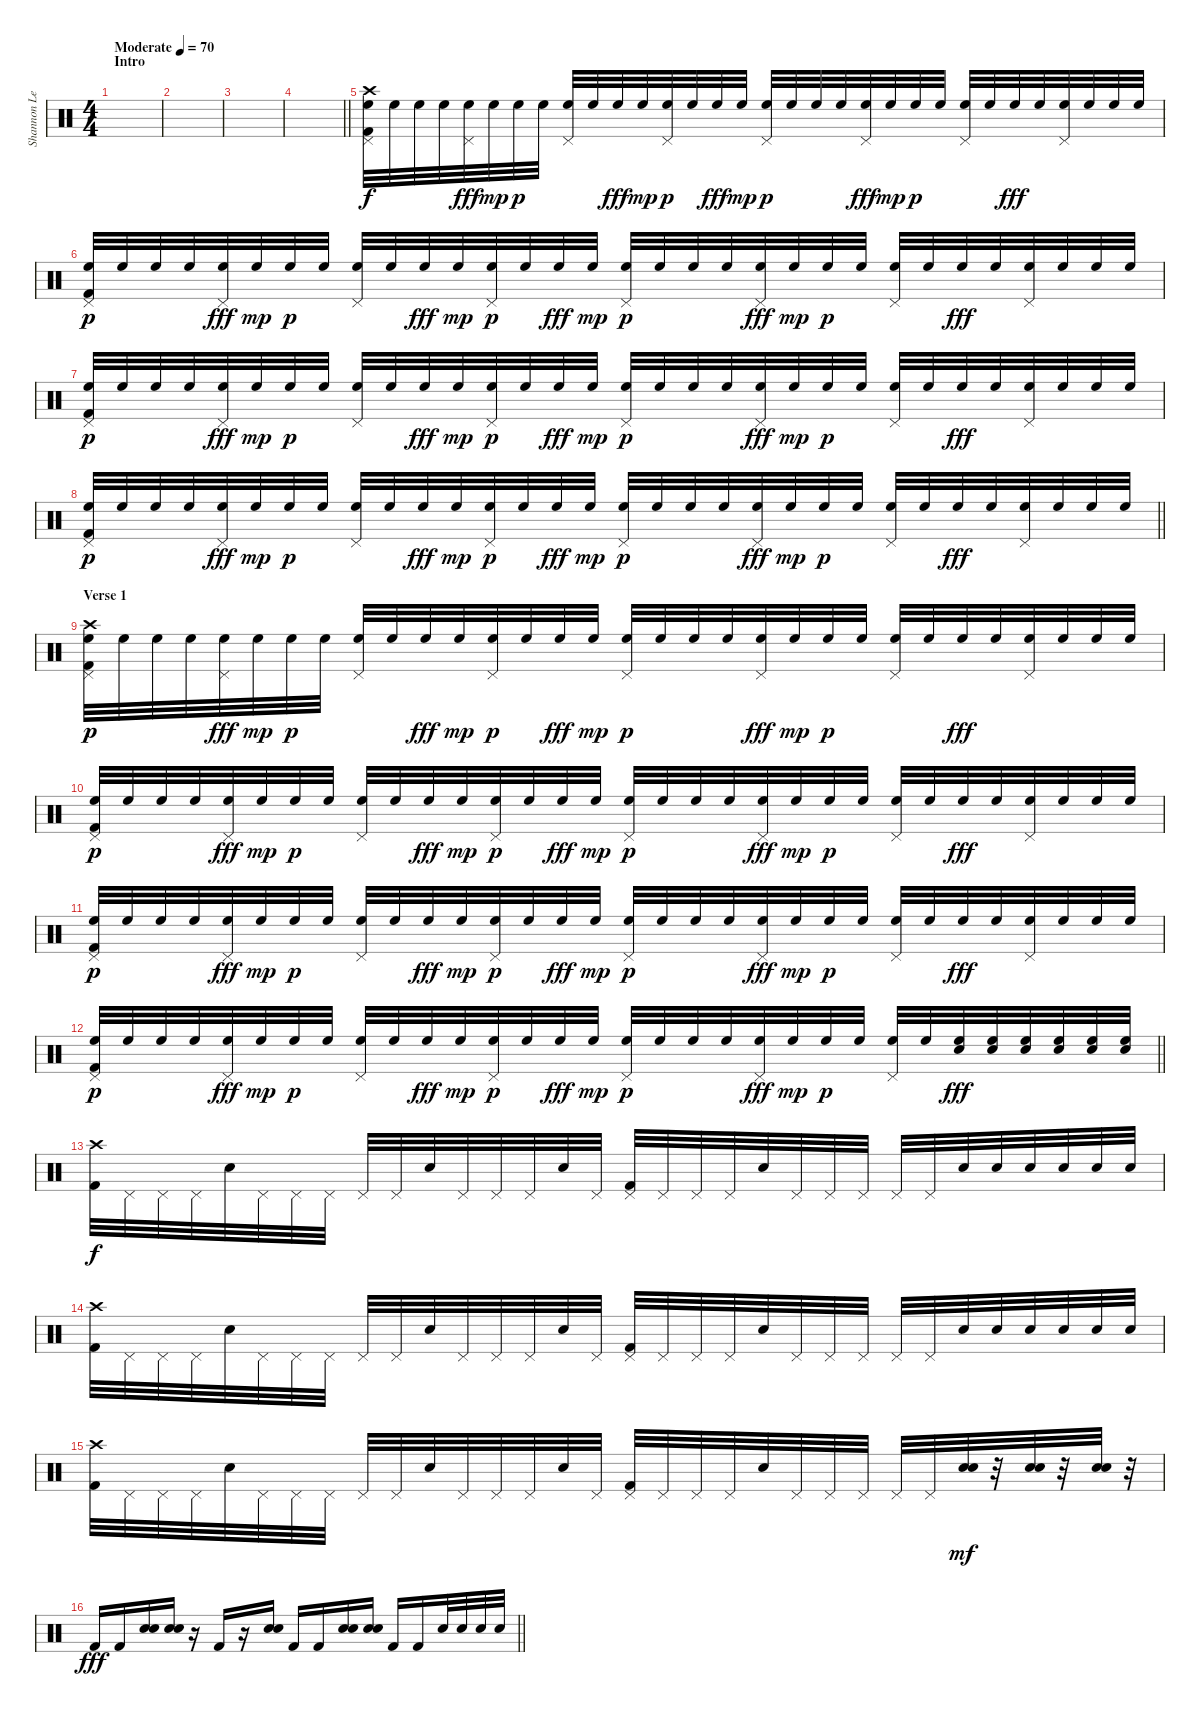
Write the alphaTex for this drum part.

\track ("Shannon Leto - Drums" "Shannon Le") {instrument percussion}
\staff {score}
\articulation defaults
\ts (4 4)
\section ("" "Intro")
\tempo (70 "Moderate")
\clef neutral
\ks c
|
|
|
\barLineRight lightlight
|
\section ("" "")
("Crash high (hit)" "Pedal Hi-Hat (hit)" "High Floor Tom (hit)" "Kick (hit) 2").32 "High Floor Tom (hit)".32 "High Floor Tom (hit)".32 "High Floor Tom (hit)".32 ("Pedal Hi-Hat (hit)" "High Floor Tom (hit)").32{dy fff} "High Floor Tom (hit)".32{dy mp} "High Floor Tom (hit)".32{dy p} "High Floor Tom (hit)".32 ("Pedal Hi-Hat (hit)" "High Floor Tom (hit)").32 "High Floor Tom (hit)".32 "High Floor Tom (hit)".32{dy fff} "High Floor Tom (hit)".32{dy mp} ("Pedal Hi-Hat (hit)" "High Floor Tom (hit)").32{dy p} "High Floor Tom (hit)".32 "High Floor Tom (hit)".32{dy fff} "High Floor Tom (hit)".32{dy mp} ("Pedal Hi-Hat (hit)" "High Floor Tom (hit)").32{dy p} "High Floor Tom (hit)".32 "High Floor Tom (hit)".32 "High Floor Tom (hit)".32 ("Pedal Hi-Hat (hit)" "High Floor Tom (hit)").32{dy fff} "High Floor Tom (hit)".32{dy mp} "High Floor Tom (hit)".32{dy p} "High Floor Tom (hit)".32 ("Pedal Hi-Hat (hit)" "High Floor Tom (hit)").32 "High Floor Tom (hit)".32 "High Floor Tom (hit)".32{dy fff} "High Floor Tom (hit)".32 ("Pedal Hi-Hat (hit)" "High Floor Tom (hit)").32 "High Floor Tom (hit)".32 "High Floor Tom (hit)".32 "High Floor Tom (hit)".32 |
("Pedal Hi-Hat (hit)" "High Floor Tom (hit)" "Kick (hit) 2").32{dy p} "High Floor Tom (hit)".32 "High Floor Tom (hit)".32 "High Floor Tom (hit)".32 ("Pedal Hi-Hat (hit)" "High Floor Tom (hit)").32{dy fff} "High Floor Tom (hit)".32{dy mp} "High Floor Tom (hit)".32{dy p} "High Floor Tom (hit)".32 ("Pedal Hi-Hat (hit)" "High Floor Tom (hit)").32 "High Floor Tom (hit)".32 "High Floor Tom (hit)".32{dy fff} "High Floor Tom (hit)".32{dy mp} ("Pedal Hi-Hat (hit)" "High Floor Tom (hit)").32{dy p} "High Floor Tom (hit)".32 "High Floor Tom (hit)".32{dy fff} "High Floor Tom (hit)".32{dy mp} ("Pedal Hi-Hat (hit)" "High Floor Tom (hit)").32{dy p} "High Floor Tom (hit)".32 "High Floor Tom (hit)".32 "High Floor Tom (hit)".32 ("Pedal Hi-Hat (hit)" "High Floor Tom (hit)").32{dy fff} "High Floor Tom (hit)".32{dy mp} "High Floor Tom (hit)".32{dy p} "High Floor Tom (hit)".32 ("Pedal Hi-Hat (hit)" "High Floor Tom (hit)").32 "High Floor Tom (hit)".32 "High Floor Tom (hit)".32{dy fff} "High Floor Tom (hit)".32 ("Pedal Hi-Hat (hit)" "High Floor Tom (hit)").32 "High Floor Tom (hit)".32 "High Floor Tom (hit)".32 "High Floor Tom (hit)".32 |
("Pedal Hi-Hat (hit)" "High Floor Tom (hit)" "Kick (hit) 2").32{dy p} "High Floor Tom (hit)".32 "High Floor Tom (hit)".32 "High Floor Tom (hit)".32 ("Pedal Hi-Hat (hit)" "High Floor Tom (hit)").32{dy fff} "High Floor Tom (hit)".32{dy mp} "High Floor Tom (hit)".32{dy p} "High Floor Tom (hit)".32 ("Pedal Hi-Hat (hit)" "High Floor Tom (hit)").32 "High Floor Tom (hit)".32 "High Floor Tom (hit)".32{dy fff} "High Floor Tom (hit)".32{dy mp} ("Pedal Hi-Hat (hit)" "High Floor Tom (hit)").32{dy p} "High Floor Tom (hit)".32 "High Floor Tom (hit)".32{dy fff} "High Floor Tom (hit)".32{dy mp} ("Pedal Hi-Hat (hit)" "High Floor Tom (hit)").32{dy p} "High Floor Tom (hit)".32 "High Floor Tom (hit)".32 "High Floor Tom (hit)".32 ("Pedal Hi-Hat (hit)" "High Floor Tom (hit)").32{dy fff} "High Floor Tom (hit)".32{dy mp} "High Floor Tom (hit)".32{dy p} "High Floor Tom (hit)".32 ("Pedal Hi-Hat (hit)" "High Floor Tom (hit)").32 "High Floor Tom (hit)".32 "High Floor Tom (hit)".32{dy fff} "High Floor Tom (hit)".32 ("Pedal Hi-Hat (hit)" "High Floor Tom (hit)").32 "High Floor Tom (hit)".32 "High Floor Tom (hit)".32 "High Floor Tom (hit)".32 |
\barLineRight lightlight
("Pedal Hi-Hat (hit)" "High Floor Tom (hit)" "Kick (hit) 2").32{dy p} "High Floor Tom (hit)".32 "High Floor Tom (hit)".32 "High Floor Tom (hit)".32 ("Pedal Hi-Hat (hit)" "High Floor Tom (hit)").32{dy fff} "High Floor Tom (hit)".32{dy mp} "High Floor Tom (hit)".32{dy p} "High Floor Tom (hit)".32 ("Pedal Hi-Hat (hit)" "High Floor Tom (hit)").32 "High Floor Tom (hit)".32 "High Floor Tom (hit)".32{dy fff} "High Floor Tom (hit)".32{dy mp} ("Pedal Hi-Hat (hit)" "High Floor Tom (hit)").32{dy p} "High Floor Tom (hit)".32 "High Floor Tom (hit)".32{dy fff} "High Floor Tom (hit)".32{dy mp} ("Pedal Hi-Hat (hit)" "High Floor Tom (hit)").32{dy p} "High Floor Tom (hit)".32 "High Floor Tom (hit)".32 "High Floor Tom (hit)".32 ("Pedal Hi-Hat (hit)" "High Floor Tom (hit)").32{dy fff} "High Floor Tom (hit)".32{dy mp} "High Floor Tom (hit)".32{dy p} "High Floor Tom (hit)".32 ("Pedal Hi-Hat (hit)" "High Floor Tom (hit)").32 "High Floor Tom (hit)".32 "High Floor Tom (hit)".32{dy fff} "High Floor Tom (hit)".32 ("Pedal Hi-Hat (hit)" "High Floor Tom (hit)").32 "High Floor Tom (hit)".32 "High Floor Tom (hit)".32 "High Floor Tom (hit)".32 |
\section ("" "Verse 1")
("Crash high (hit)" "Pedal Hi-Hat (hit)" "High Floor Tom (hit)" "Kick (hit) 2").32{dy p} "High Floor Tom (hit)".32 "High Floor Tom (hit)".32 "High Floor Tom (hit)".32 ("Pedal Hi-Hat (hit)" "High Floor Tom (hit)").32{dy fff} "High Floor Tom (hit)".32{dy mp} "High Floor Tom (hit)".32{dy p} "High Floor Tom (hit)".32 ("Pedal Hi-Hat (hit)" "High Floor Tom (hit)").32 "High Floor Tom (hit)".32 "High Floor Tom (hit)".32{dy fff} "High Floor Tom (hit)".32{dy mp} ("Pedal Hi-Hat (hit)" "High Floor Tom (hit)").32{dy p} "High Floor Tom (hit)".32 "High Floor Tom (hit)".32{dy fff} "High Floor Tom (hit)".32{dy mp} ("Pedal Hi-Hat (hit)" "High Floor Tom (hit)").32{dy p} "High Floor Tom (hit)".32 "High Floor Tom (hit)".32 "High Floor Tom (hit)".32 ("Pedal Hi-Hat (hit)" "High Floor Tom (hit)").32{dy fff} "High Floor Tom (hit)".32{dy mp} "High Floor Tom (hit)".32{dy p} "High Floor Tom (hit)".32 ("Pedal Hi-Hat (hit)" "High Floor Tom (hit)").32 "High Floor Tom (hit)".32 "High Floor Tom (hit)".32{dy fff} "High Floor Tom (hit)".32 ("Pedal Hi-Hat (hit)" "High Floor Tom (hit)").32 "High Floor Tom (hit)".32 "High Floor Tom (hit)".32 "High Floor Tom (hit)".32 |
("Pedal Hi-Hat (hit)" "High Floor Tom (hit)" "Kick (hit) 2").32{dy p} "High Floor Tom (hit)".32 "High Floor Tom (hit)".32 "High Floor Tom (hit)".32 ("Pedal Hi-Hat (hit)" "High Floor Tom (hit)").32{dy fff} "High Floor Tom (hit)".32{dy mp} "High Floor Tom (hit)".32{dy p} "High Floor Tom (hit)".32 ("Pedal Hi-Hat (hit)" "High Floor Tom (hit)").32 "High Floor Tom (hit)".32 "High Floor Tom (hit)".32{dy fff} "High Floor Tom (hit)".32{dy mp} ("Pedal Hi-Hat (hit)" "High Floor Tom (hit)").32{dy p} "High Floor Tom (hit)".32 "High Floor Tom (hit)".32{dy fff} "High Floor Tom (hit)".32{dy mp} ("Pedal Hi-Hat (hit)" "High Floor Tom (hit)").32{dy p} "High Floor Tom (hit)".32 "High Floor Tom (hit)".32 "High Floor Tom (hit)".32 ("Pedal Hi-Hat (hit)" "High Floor Tom (hit)").32{dy fff} "High Floor Tom (hit)".32{dy mp} "High Floor Tom (hit)".32{dy p} "High Floor Tom (hit)".32 ("Pedal Hi-Hat (hit)" "High Floor Tom (hit)").32 "High Floor Tom (hit)".32 "High Floor Tom (hit)".32{dy fff} "High Floor Tom (hit)".32 ("Pedal Hi-Hat (hit)" "High Floor Tom (hit)").32 "High Floor Tom (hit)".32 "High Floor Tom (hit)".32 "High Floor Tom (hit)".32 |
("Pedal Hi-Hat (hit)" "High Floor Tom (hit)" "Kick (hit) 2").32{dy p} "High Floor Tom (hit)".32 "High Floor Tom (hit)".32 "High Floor Tom (hit)".32 ("Pedal Hi-Hat (hit)" "High Floor Tom (hit)").32{dy fff} "High Floor Tom (hit)".32{dy mp} "High Floor Tom (hit)".32{dy p} "High Floor Tom (hit)".32 ("Pedal Hi-Hat (hit)" "High Floor Tom (hit)").32 "High Floor Tom (hit)".32 "High Floor Tom (hit)".32{dy fff} "High Floor Tom (hit)".32{dy mp} ("Pedal Hi-Hat (hit)" "High Floor Tom (hit)").32{dy p} "High Floor Tom (hit)".32 "High Floor Tom (hit)".32{dy fff} "High Floor Tom (hit)".32{dy mp} ("Pedal Hi-Hat (hit)" "High Floor Tom (hit)").32{dy p} "High Floor Tom (hit)".32 "High Floor Tom (hit)".32 "High Floor Tom (hit)".32 ("Pedal Hi-Hat (hit)" "High Floor Tom (hit)").32{dy fff} "High Floor Tom (hit)".32{dy mp} "High Floor Tom (hit)".32{dy p} "High Floor Tom (hit)".32 ("Pedal Hi-Hat (hit)" "High Floor Tom (hit)").32 "High Floor Tom (hit)".32 "High Floor Tom (hit)".32{dy fff} "High Floor Tom (hit)".32 ("Pedal Hi-Hat (hit)" "High Floor Tom (hit)").32 "High Floor Tom (hit)".32 "High Floor Tom (hit)".32 "High Floor Tom (hit)".32 |
\barLineRight lightlight
("Pedal Hi-Hat (hit)" "High Floor Tom (hit)" "Kick (hit) 2").32{dy p} "High Floor Tom (hit)".32 "High Floor Tom (hit)".32 "High Floor Tom (hit)".32 ("Pedal Hi-Hat (hit)" "High Floor Tom (hit)").32{dy fff} "High Floor Tom (hit)".32{dy mp} "High Floor Tom (hit)".32{dy p} "High Floor Tom (hit)".32 ("Pedal Hi-Hat (hit)" "High Floor Tom (hit)").32 "High Floor Tom (hit)".32 "High Floor Tom (hit)".32{dy fff} "High Floor Tom (hit)".32{dy mp} ("Pedal Hi-Hat (hit)" "High Floor Tom (hit)").32{dy p} "High Floor Tom (hit)".32 "High Floor Tom (hit)".32{dy fff} "High Floor Tom (hit)".32{dy mp} ("Pedal Hi-Hat (hit)" "High Floor Tom (hit)").32{dy p} "High Floor Tom (hit)".32 "High Floor Tom (hit)".32 "High Floor Tom (hit)".32 ("Pedal Hi-Hat (hit)" "High Floor Tom (hit)").32{dy fff} "High Floor Tom (hit)".32{dy mp} "High Floor Tom (hit)".32{dy p} "High Floor Tom (hit)".32 ("Pedal Hi-Hat (hit)" "High Floor Tom (hit)").32 "High Floor Tom (hit)".32 ("Electric Snare (hit)" "High Floor Tom (hit)").32{dy fff} ("Electric Snare (hit)" "High Floor Tom (hit)").32 ("Electric Snare (hit)" "High Floor Tom (hit)").32 ("Electric Snare (hit)" "High Floor Tom (hit)").32 ("Electric Snare (hit)" "High Floor Tom (hit)").32 ("Electric Snare (hit)" "High Floor Tom (hit)").32 |
("Crash high (hit)" "Kick (hit) 2").32{dy f} "Pedal Hi-Hat (hit)".32 "Pedal Hi-Hat (hit)".32 "Pedal Hi-Hat (hit)".32 "Electric Snare (hit)".32 "Pedal Hi-Hat (hit)".32 "Pedal Hi-Hat (hit)".32 "Pedal Hi-Hat (hit)".32 "Pedal Hi-Hat (hit)".32 "Pedal Hi-Hat (hit)".32 "Electric Snare (hit)".32 "Pedal Hi-Hat (hit)".32 "Pedal Hi-Hat (hit)".32 "Pedal Hi-Hat (hit)".32 "Electric Snare (hit)".32 "Pedal Hi-Hat (hit)".32 ("Pedal Hi-Hat (hit)" "Kick (hit) 2").32 "Pedal Hi-Hat (hit)".32 "Pedal Hi-Hat (hit)".32 "Pedal Hi-Hat (hit)".32 "Electric Snare (hit)".32 "Pedal Hi-Hat (hit)".32 "Pedal Hi-Hat (hit)".32 "Pedal Hi-Hat (hit)".32 "Pedal Hi-Hat (hit)".32 "Pedal Hi-Hat (hit)".32 "Electric Snare (hit)".32 "Electric Snare (hit)".32 "Electric Snare (hit)".32 "Electric Snare (hit)".32 "Electric Snare (hit)".32 "Electric Snare (hit)".32 |
("Crash high (hit)" "Kick (hit) 2").32 "Pedal Hi-Hat (hit)".32 "Pedal Hi-Hat (hit)".32 "Pedal Hi-Hat (hit)".32 "Electric Snare (hit)".32 "Pedal Hi-Hat (hit)".32 "Pedal Hi-Hat (hit)".32 "Pedal Hi-Hat (hit)".32 "Pedal Hi-Hat (hit)".32 "Pedal Hi-Hat (hit)".32 "Electric Snare (hit)".32 "Pedal Hi-Hat (hit)".32 "Pedal Hi-Hat (hit)".32 "Pedal Hi-Hat (hit)".32 "Electric Snare (hit)".32 "Pedal Hi-Hat (hit)".32 ("Pedal Hi-Hat (hit)" "Kick (hit) 2").32 "Pedal Hi-Hat (hit)".32 "Pedal Hi-Hat (hit)".32 "Pedal Hi-Hat (hit)".32 "Electric Snare (hit)".32 "Pedal Hi-Hat (hit)".32 "Pedal Hi-Hat (hit)".32 "Pedal Hi-Hat (hit)".32 "Pedal Hi-Hat (hit)".32 "Pedal Hi-Hat (hit)".32 "Electric Snare (hit)".32 "Electric Snare (hit)".32 "Electric Snare (hit)".32 "Electric Snare (hit)".32 "Electric Snare (hit)".32 "Electric Snare (hit)".32 |
("Crash high (hit)" "Kick (hit) 2").32 "Pedal Hi-Hat (hit)".32 "Pedal Hi-Hat (hit)".32 "Pedal Hi-Hat (hit)".32 "Electric Snare (hit)".32 "Pedal Hi-Hat (hit)".32 "Pedal Hi-Hat (hit)".32 "Pedal Hi-Hat (hit)".32 "Pedal Hi-Hat (hit)".32 "Pedal Hi-Hat (hit)".32 "Electric Snare (hit)".32 "Pedal Hi-Hat (hit)".32 "Pedal Hi-Hat (hit)".32 "Pedal Hi-Hat (hit)".32 "Electric Snare (hit)".32 "Pedal Hi-Hat (hit)".32 ("Pedal Hi-Hat (hit)" "Kick (hit) 2").32 "Pedal Hi-Hat (hit)".32 "Pedal Hi-Hat (hit)".32 "Pedal Hi-Hat (hit)".32 "Electric Snare (hit)".32 "Pedal Hi-Hat (hit)".32 "Pedal Hi-Hat (hit)".32 "Pedal Hi-Hat (hit)".32 "Pedal Hi-Hat (hit)".32 "Pedal Hi-Hat (hit)".32 ("Electric Snare (hit)" "Electric Snare (hit)").32{dy mf} r.32 ("Electric Snare (hit)" "Electric Snare (hit)").32 r.32 ("Electric Snare (hit)" "Electric Snare (hit)").32 r.32 |
\barLineRight lightlight "Kick (hit) 2".16{dy fff} "Kick (hit) 2".16
("Electric Snare (hit)" "Electric Snare (hit)").16{bd 30} ("Electric Snare (hit)" "Electric Snare (hit)").16{bd 30} r.16 "Kick (hit) 2".16 r.16 ("Electric Snare (hit)" "Electric Snare (hit)").16{bd 30} "Kick (hit) 2".16 "Kick (hit) 2".16 ("Electric Snare (hit)" "Electric Snare (hit)").16{bd 30} ("Electric Snare (hit)" "Electric Snare (hit)").16{bu 30} "Kick (hit) 2".16 "Kick (hit) 2".16 "Electric Snare (hit)".32 "Electric Snare (hit)".32 "Electric Snare (hit)".32 "Electric Snare (hit)".32
